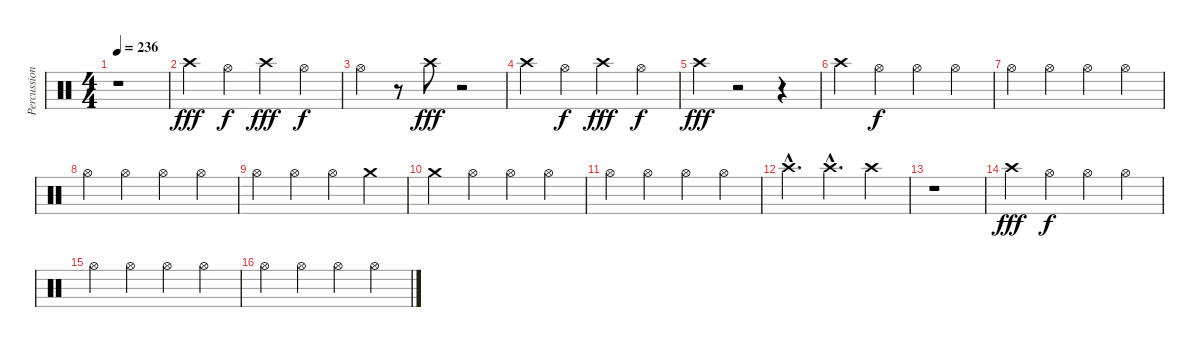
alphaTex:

\track ("Percussions" "Percussion") {instrument percussion}
\staff {score}
\articulation defaults
\ts (4 4)
\tempo 236
\clef neutral
\ks c
r.1{dy f} |
"Crash high (hit)".4{dy fff} "Hi-Hat (open)".4{dy f} "Crash high (hit)".4{dy fff} "Hi-Hat (open)".4{dy f} |
"Hi-Hat (open)".4 r.8 "Crash high (hit)".8{dy fff} r.2 |
"Crash high (hit)".4 "Hi-Hat (open)".4{dy f} "Crash high (hit)".4{dy fff} "Hi-Hat (open)".4{dy f} |
"Crash high (hit)".4{dy fff} r.2 r.4 |
"Crash high (hit)".4 "Hi-Hat (open)".4{dy f} "Hi-Hat (open)".4 "Hi-Hat (open)".4 |
"Hi-Hat (open)".4 "Hi-Hat (open)".4 "Hi-Hat (open)".4 "Hi-Hat (open)".4 |
"Hi-Hat (open)".4 "Hi-Hat (open)".4 "Hi-Hat (open)".4 "Hi-Hat (open)".4 |
"Hi-Hat (open)".4 "Hi-Hat (open)".4 "Hi-Hat (open)".4 "Crash medium (hit)".4 |
"Crash medium (hit)".4 "Hi-Hat (open)".4 "Hi-Hat (open)".4 "Hi-Hat (open)".4 |
"Hi-Hat (open)".4 "Hi-Hat (open)".4 "Hi-Hat (open)".4 "Hi-Hat (open)".4 |
"Crash high (hit)"{hac}.4{d} "Crash high (hit)"{hac}.4{d} "Crash high (hit)".4 |
r.1 |
"Crash high (hit)".4{dy fff} "Hi-Hat (open)".4{dy f} "Hi-Hat (open)".4 "Hi-Hat (open)".4 |
"Hi-Hat (open)".4 "Hi-Hat (open)".4 "Hi-Hat (open)".4 "Hi-Hat (open)".4 |
"Hi-Hat (open)".4 "Hi-Hat (open)".4 "Hi-Hat (open)".4 "Hi-Hat (open)".4
